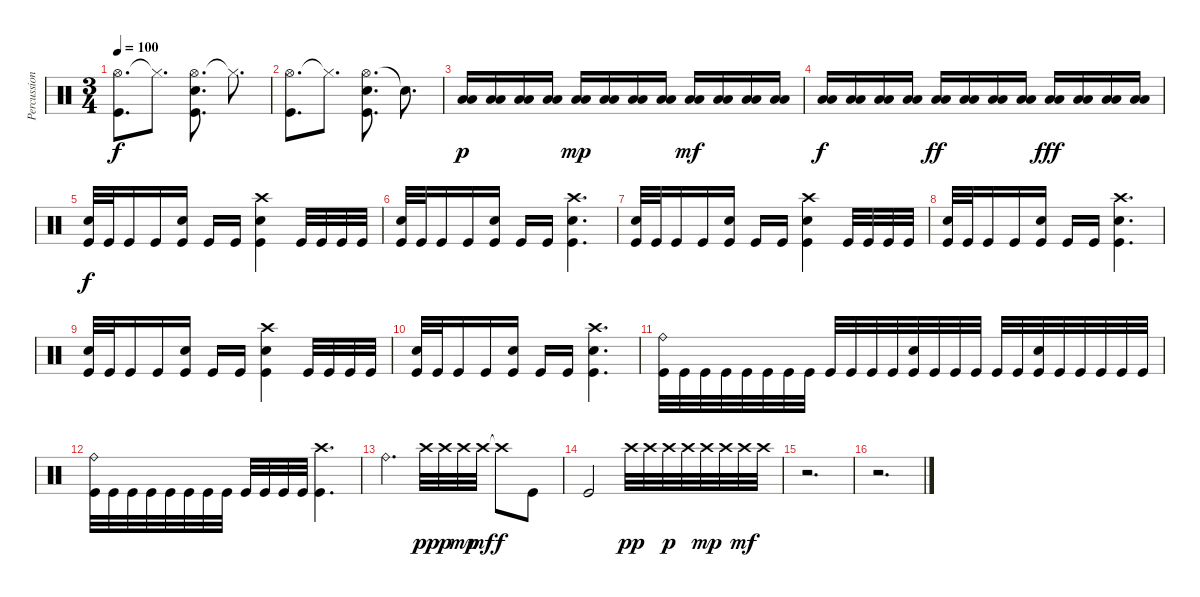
\track ("Percussion" "Percussion") {instrument percussion}
\staff
\articulation defaults
\ts (3 4)
\tempo 100
\clef neutral
\ks c
("Hi-Hat (open)" "Kick (hit)").8{d dy f} "Hi-Hat (closed)"{t}.8{d} ("Hi-Hat (open)" "Electric Snare (hit)" "Kick (hit)").8{d} "Hi-Hat (closed)"{t}.8{d} |
("Hi-Hat (open)" "Kick (hit)").8{d} "Hi-Hat (closed)"{t}.8{d} ("Hi-Hat (open)" "Electric Snare (hit)" "Kick (hit)").8{d} "Snare (hit)"{t}.8{d} |
("Low Tom (hit)" "Low Floor Tom (hit)").16{dy p} ("Low Tom (hit)" "Low Floor Tom (hit)").16 ("Low Tom (hit)" "Low Floor Tom (hit)").16 ("Low Tom (hit)" "Low Floor Tom (hit)").16 ("Low Tom (hit)" "Low Floor Tom (hit)").16{dy mp} ("Low Tom (hit)" "Low Floor Tom (hit)").16 ("Low Tom (hit)" "Low Floor Tom (hit)").16 ("Low Tom (hit)" "Low Floor Tom (hit)").16 ("Low Tom (hit)" "Low Floor Tom (hit)").16{dy mf} ("Low Tom (hit)" "Low Floor Tom (hit)").16 ("Low Tom (hit)" "Low Floor Tom (hit)").16 ("Low Tom (hit)" "Low Floor Tom (hit)").16 |
("Low Tom (hit)" "Low Floor Tom (hit)").16{dy f} ("Low Tom (hit)" "Low Floor Tom (hit)").16 ("Low Tom (hit)" "Low Floor Tom (hit)").16 ("Low Tom (hit)" "Low Floor Tom (hit)").16 ("Low Tom (hit)" "Low Floor Tom (hit)").16{dy ff} ("Low Tom (hit)" "Low Floor Tom (hit)").16 ("Low Tom (hit)" "Low Floor Tom (hit)").16 ("Low Tom (hit)" "Low Floor Tom (hit)").16 ("Low Tom (hit)" "Low Floor Tom (hit)").16{dy fff} ("Low Tom (hit)" "Low Floor Tom (hit)").16 ("Low Tom (hit)" "Low Floor Tom (hit)").16 ("Low Tom (hit)" "Low Floor Tom (hit)").16 |
("Electric Snare (hit)" "Kick (hit)").32{dy f} "Kick (hit)".32 "Kick (hit)".16 "Kick (hit)".16 ("Electric Snare (hit)" "Kick (hit)").16 "Kick (hit)".16 "Kick (hit)".16 ("Crash high (hit)" "Electric Snare (hit)" "Kick (hit)").4 "Kick (hit)".32 "Kick (hit)".32 "Kick (hit)".32 "Kick (hit)".32 |
("Electric Snare (hit)" "Kick (hit)").32 "Kick (hit)".32 "Kick (hit)".16 "Kick (hit)".16 ("Electric Snare (hit)" "Kick (hit)").16 "Kick (hit)".16 "Kick (hit)".16 ("Crash high (hit)" "Electric Snare (hit)" "Kick (hit)").4{d} |
("Electric Snare (hit)" "Kick (hit)").32 "Kick (hit)".32 "Kick (hit)".16 "Kick (hit)".16 ("Electric Snare (hit)" "Kick (hit)").16 "Kick (hit)".16 "Kick (hit)".16 ("Crash high (hit)" "Electric Snare (hit)" "Kick (hit)").4 "Kick (hit)".32 "Kick (hit)".32 "Kick (hit)".32 "Kick (hit)".32 |
("Electric Snare (hit)" "Kick (hit)").32 "Kick (hit)".32 "Kick (hit)".16 "Kick (hit)".16 ("Electric Snare (hit)" "Kick (hit)").16 "Kick (hit)".16 "Kick (hit)".16 ("Crash high (hit)" "Electric Snare (hit)" "Kick (hit)").4{d} |
("Electric Snare (hit)" "Kick (hit)").32 "Kick (hit)".32 "Kick (hit)".16 "Kick (hit)".16 ("Electric Snare (hit)" "Kick (hit)").16 "Kick (hit)".16 "Kick (hit)".16 ("Crash high (hit)" "Electric Snare (hit)" "Kick (hit)").4 "Kick (hit)".32 "Kick (hit)".32 "Kick (hit)".32 "Kick (hit)".32 |
("Electric Snare (hit)" "Kick (hit)").32 "Kick (hit)".32 "Kick (hit)".16 "Kick (hit)".16 ("Electric Snare (hit)" "Kick (hit)").16 "Kick (hit)".16 "Kick (hit)".16 ("Crash high (hit)" "Electric Snare (hit)" "Kick (hit)").4{d} |
("Ride (bell)" "Kick (hit)").32 "Kick (hit)".32 "Kick (hit)".32 "Kick (hit)".32 "Kick (hit)".32 "Kick (hit)".32 "Kick (hit)".32 "Kick (hit)".32 "Kick (hit)".32 "Kick (hit)".32 "Kick (hit)".32 "Kick (hit)".32 ("Electric Snare (hit)" "Kick (hit)").32 "Kick (hit)".32 "Kick (hit)".32 "Kick (hit)".32 "Kick (hit)".32 "Kick (hit)".32 ("Electric Snare (hit)" "Kick (hit)").32 "Kick (hit)".32 "Kick (hit)".32 "Kick (hit)".32 "Kick (hit)".32 "Kick (hit)".32 |
("Ride (bell)" "Kick (hit)").32 "Kick (hit)".32 "Kick (hit)".32 "Kick (hit)".32 "Kick (hit)".32 "Kick (hit)".32 "Kick (hit)".32 "Kick (hit)".32 "Kick (hit)".32 "Kick (hit)".32 "Kick (hit)".32 "Kick (hit)".32 ("Crash high (hit)" "Kick (hit)").4{d} |
"Ride (bell)".4{d} "Crash high (hit)".32{dy pp} "Crash high (hit)".32{dy p} "Crash high (hit)".32{dy mp} "Crash high (hit)".32{dy mf} "Crash high (hit)"{t}.8{dy f} "Kick (hit)".8 |
"Kick (hit)".2 "Crash high (hit)".32{dy pp} "Crash high (hit)".32 "Crash high (hit)".32{dy p} "Crash high (hit)".32 "Crash high (hit)".32{dy mp} "Crash high (hit)".32 "Crash high (hit)".32{dy mf} "Crash high (hit)".32 |
r.2{d} |
r.2{d}
